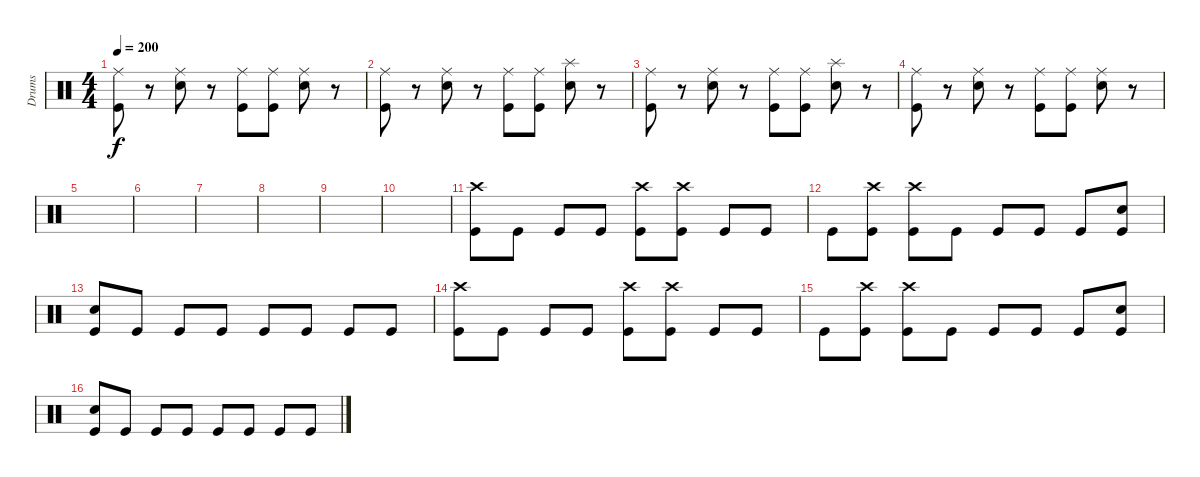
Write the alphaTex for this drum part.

\track ("Drums" "Drums") {instrument percussion}
\staff {score}
\articulation defaults
\ts (4 4)
\tempo 200
\clef neutral
\ks c
("Ride (middle)" "Kick (hit)").8{dy f} r.8 ("Ride (middle)" "Snare (hit) 2").8 r.8 ("Ride (middle)" "Kick (hit)").8 ("Ride (middle)" "Kick (hit)").8 ("Ride (middle)" "Snare (hit) 2").8 r.8 |
("Ride (middle)" "Kick (hit)").8 r.8 ("Ride (middle)" "Snare (hit) 2").8 r.8 ("Ride (middle)" "Kick (hit)").8 ("Ride (middle)" "Kick (hit)").8 ("Splash (hit)" "Snare (hit) 2").8 r.8 |
("Ride (middle)" "Kick (hit)").8 r.8 ("Ride (middle)" "Snare (hit) 2").8 r.8 ("Ride (middle)" "Kick (hit)").8 ("Ride (middle)" "Kick (hit)").8 ("Splash (hit)" "Snare (hit) 2").8 r.8 |
("Ride (middle)" "Kick (hit)").8 r.8 ("Ride (middle)" "Snare (hit) 2").8 r.8 ("Ride (middle)" "Kick (hit)").8 ("Ride (middle)" "Kick (hit)").8 ("Ride (middle)" "Snare (hit) 2").8 r.8 |
|
|
|
|
|
|
("Crash high (hit)" "Kick (hit)").8 "Kick (hit)".8 "Kick (hit)".8 "Kick (hit)".8 ("Crash high (hit)" "Kick (hit)").8 ("Crash high (hit)" "Kick (hit)").8 "Kick (hit)".8 "Kick (hit)".8 |
"Kick (hit)".8 ("Crash high (hit)" "Kick (hit)").8 ("Crash high (hit)" "Kick (hit)").8 "Kick (hit)".8 "Kick (hit)".8 "Kick (hit)".8 "Kick (hit)".8 ("Snare (hit) 2" "Kick (hit)").8 |
("Snare (hit) 2" "Kick (hit)").8 "Kick (hit)".8 "Kick (hit)".8 "Kick (hit)".8 "Kick (hit)".8 "Kick (hit)".8 "Kick (hit)".8 "Kick (hit)".8 |
("Crash high (hit)" "Kick (hit)").8 "Kick (hit)".8 "Kick (hit)".8 "Kick (hit)".8 ("Crash high (hit)" "Kick (hit)").8 ("Crash high (hit)" "Kick (hit)").8 "Kick (hit)".8 "Kick (hit)".8 |
"Kick (hit)".8 ("Crash high (hit)" "Kick (hit)").8 ("Crash high (hit)" "Kick (hit)").8 "Kick (hit)".8 "Kick (hit)".8 "Kick (hit)".8 "Kick (hit)".8 ("Snare (hit) 2" "Kick (hit)").8 |
("Snare (hit) 2" "Kick (hit)").8 "Kick (hit)".8 "Kick (hit)".8 "Kick (hit)".8 "Kick (hit)".8 "Kick (hit)".8 "Kick (hit)".8 "Kick (hit)".8
